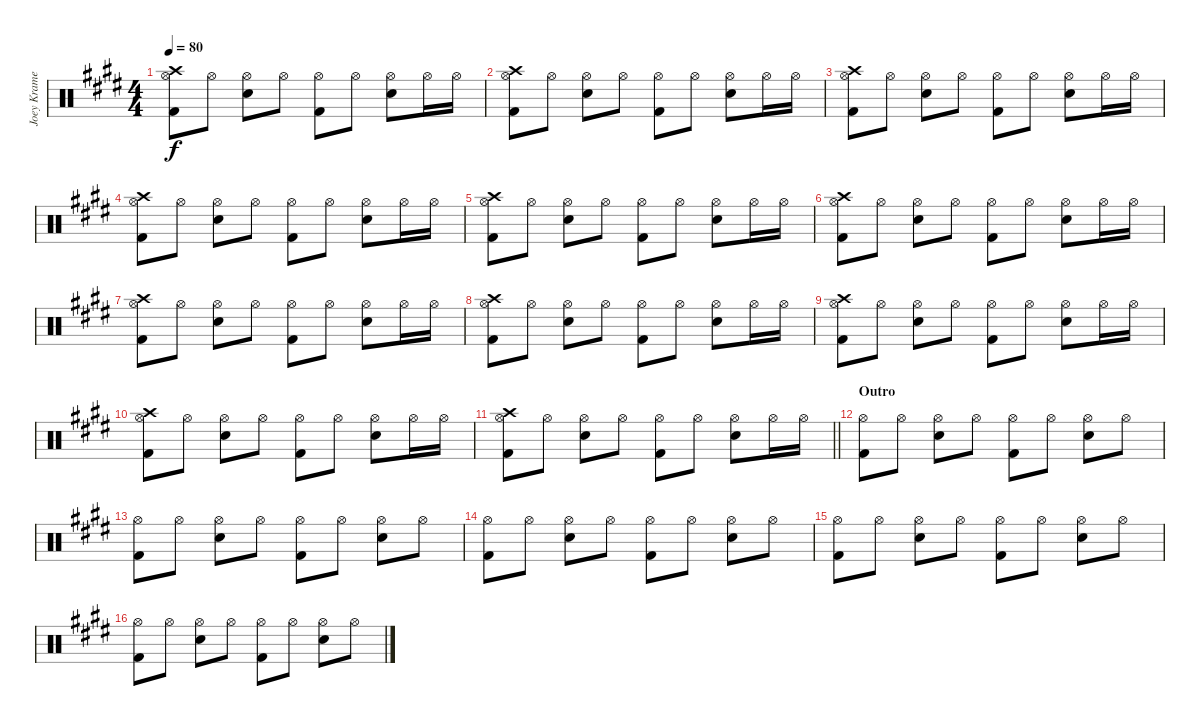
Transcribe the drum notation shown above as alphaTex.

\track ("Joey Kramer (Percussion)" "Joey Krame") {instrument percussion}
\staff {score}
\articulation defaults
\ts (4 4)
\tempo 80
\clef neutral
\ks e
("Crash high (hit)" "Hi-Hat (open)" "Kick (hit) 2").8{dy f} "Hi-Hat (open)".8 ("Hi-Hat (open)" "Electric Snare (hit)").8 "Hi-Hat (open)".8 ("Hi-Hat (open)" "Kick (hit) 2").8 "Hi-Hat (open)".8 ("Hi-Hat (open)" "Electric Snare (hit)").8 "Hi-Hat (open)".16 "Hi-Hat (open)".16 |
("Crash high (hit)" "Hi-Hat (open)" "Kick (hit) 2").8 "Hi-Hat (open)".8 ("Hi-Hat (open)" "Electric Snare (hit)").8 "Hi-Hat (open)".8 ("Hi-Hat (open)" "Kick (hit) 2").8 "Hi-Hat (open)".8 ("Hi-Hat (open)" "Electric Snare (hit)").8 "Hi-Hat (open)".16 "Hi-Hat (open)".16 |
("Crash high (hit)" "Hi-Hat (open)" "Kick (hit) 2").8 "Hi-Hat (open)".8 ("Hi-Hat (open)" "Electric Snare (hit)").8 "Hi-Hat (open)".8 ("Hi-Hat (open)" "Kick (hit) 2").8 "Hi-Hat (open)".8 ("Hi-Hat (open)" "Electric Snare (hit)").8 "Hi-Hat (open)".16 "Hi-Hat (open)".16 |
("Crash high (hit)" "Hi-Hat (open)" "Kick (hit) 2").8 "Hi-Hat (open)".8 ("Hi-Hat (open)" "Electric Snare (hit)").8 "Hi-Hat (open)".8 ("Hi-Hat (open)" "Kick (hit) 2").8 "Hi-Hat (open)".8 ("Hi-Hat (open)" "Electric Snare (hit)").8 "Hi-Hat (open)".16 "Hi-Hat (open)".16 |
("Crash high (hit)" "Hi-Hat (open)" "Kick (hit) 2").8 "Hi-Hat (open)".8 ("Hi-Hat (open)" "Electric Snare (hit)").8 "Hi-Hat (open)".8 ("Hi-Hat (open)" "Kick (hit) 2").8 "Hi-Hat (open)".8 ("Hi-Hat (open)" "Electric Snare (hit)").8 "Hi-Hat (open)".16 "Hi-Hat (open)".16 |
("Crash high (hit)" "Hi-Hat (open)" "Kick (hit) 2").8 "Hi-Hat (open)".8 ("Hi-Hat (open)" "Electric Snare (hit)").8 "Hi-Hat (open)".8 ("Hi-Hat (open)" "Kick (hit) 2").8 "Hi-Hat (open)".8 ("Hi-Hat (open)" "Electric Snare (hit)").8 "Hi-Hat (open)".16 "Hi-Hat (open)".16 |
("Crash high (hit)" "Hi-Hat (open)" "Kick (hit) 2").8 "Hi-Hat (open)".8 ("Hi-Hat (open)" "Electric Snare (hit)").8 "Hi-Hat (open)".8 ("Hi-Hat (open)" "Kick (hit) 2").8 "Hi-Hat (open)".8 ("Hi-Hat (open)" "Electric Snare (hit)").8 "Hi-Hat (open)".16 "Hi-Hat (open)".16 |
("Crash high (hit)" "Hi-Hat (open)" "Kick (hit) 2").8 "Hi-Hat (open)".8 ("Hi-Hat (open)" "Electric Snare (hit)").8 "Hi-Hat (open)".8 ("Hi-Hat (open)" "Kick (hit) 2").8 "Hi-Hat (open)".8 ("Hi-Hat (open)" "Electric Snare (hit)").8 "Hi-Hat (open)".16 "Hi-Hat (open)".16 |
("Crash high (hit)" "Hi-Hat (open)" "Kick (hit) 2").8 "Hi-Hat (open)".8 ("Hi-Hat (open)" "Electric Snare (hit)").8 "Hi-Hat (open)".8 ("Hi-Hat (open)" "Kick (hit) 2").8 "Hi-Hat (open)".8 ("Hi-Hat (open)" "Electric Snare (hit)").8 "Hi-Hat (open)".16 "Hi-Hat (open)".16 |
("Crash high (hit)" "Hi-Hat (open)" "Kick (hit) 2").8 "Hi-Hat (open)".8 ("Hi-Hat (open)" "Electric Snare (hit)").8 "Hi-Hat (open)".8 ("Hi-Hat (open)" "Kick (hit) 2").8 "Hi-Hat (open)".8 ("Hi-Hat (open)" "Electric Snare (hit)").8 "Hi-Hat (open)".16 "Hi-Hat (open)".16 |
\barLineRight lightlight
("Crash high (hit)" "Hi-Hat (open)" "Kick (hit) 2").8 "Hi-Hat (open)".8 ("Hi-Hat (open)" "Electric Snare (hit)").8 "Hi-Hat (open)".8 ("Hi-Hat (open)" "Kick (hit) 2").8 "Hi-Hat (open)".8 ("Hi-Hat (open)" "Electric Snare (hit)").8 "Hi-Hat (open)".16 "Hi-Hat (open)".16 |
\section ("" "Outro")
("Hi-Hat (open)" "Kick (hit) 2").8 "Hi-Hat (open)".8 ("Hi-Hat (open)" "Electric Snare (hit)").8 "Hi-Hat (open)".8 ("Hi-Hat (open)" "Kick (hit) 2").8 "Hi-Hat (open)".8 ("Hi-Hat (open)" "Electric Snare (hit)").8 "Hi-Hat (open)".8 |
("Hi-Hat (open)" "Kick (hit) 2").8 "Hi-Hat (open)".8 ("Hi-Hat (open)" "Electric Snare (hit)").8 "Hi-Hat (open)".8 ("Hi-Hat (open)" "Kick (hit) 2").8 "Hi-Hat (open)".8 ("Hi-Hat (open)" "Electric Snare (hit)").8 "Hi-Hat (open)".8 |
("Hi-Hat (open)" "Kick (hit) 2").8 "Hi-Hat (open)".8 ("Hi-Hat (open)" "Electric Snare (hit)").8 "Hi-Hat (open)".8 ("Hi-Hat (open)" "Kick (hit) 2").8 "Hi-Hat (open)".8 ("Hi-Hat (open)" "Electric Snare (hit)").8 "Hi-Hat (open)".8 |
("Hi-Hat (open)" "Kick (hit) 2").8 "Hi-Hat (open)".8 ("Hi-Hat (open)" "Electric Snare (hit)").8 "Hi-Hat (open)".8 ("Hi-Hat (open)" "Kick (hit) 2").8 "Hi-Hat (open)".8 ("Hi-Hat (open)" "Electric Snare (hit)").8 "Hi-Hat (open)".8 |
("Hi-Hat (open)" "Kick (hit) 2").8 "Hi-Hat (open)".8 ("Hi-Hat (open)" "Electric Snare (hit)").8 "Hi-Hat (open)".8 ("Hi-Hat (open)" "Kick (hit) 2").8 "Hi-Hat (open)".8 ("Hi-Hat (open)" "Electric Snare (hit)").8 "Hi-Hat (open)".8
